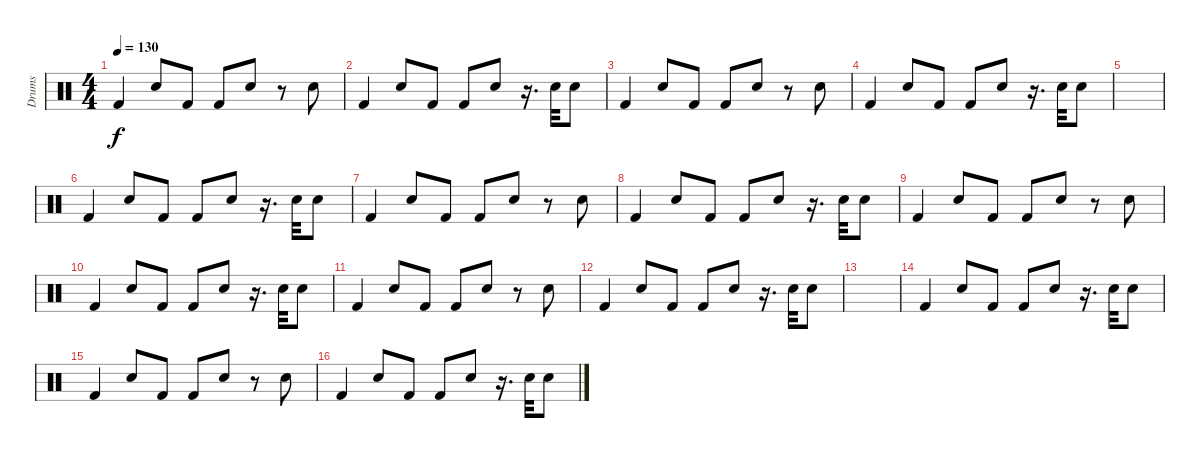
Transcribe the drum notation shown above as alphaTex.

\track ("Drums" "Drums") {instrument percussion}
\staff {score}
\articulation defaults
\ts (4 4)
\tempo 130
\clef neutral
\ks c "Kick (hit) 2".4{dy f} "Snare (hit) 2".8 "Kick (hit) 2".8 "Kick (hit) 2".8 "Snare (hit) 2".8
r.8 "Snare (hit) 2".8 |
"Kick (hit) 2".4 "Snare (hit) 2".8 "Kick (hit) 2".8 "Kick (hit) 2".8 "Snare (hit) 2".8 r.16{d} "Snare (hit) 2".32 "Snare (hit) 2".8 |
"Kick (hit) 2".4 "Snare (hit) 2".8 "Kick (hit) 2".8 "Kick (hit) 2".8 "Snare (hit) 2".8 r.8 "Snare (hit) 2".8 |
"Kick (hit) 2".4 "Snare (hit) 2".8 "Kick (hit) 2".8 "Kick (hit) 2".8 "Snare (hit) 2".8 r.16{d} "Snare (hit) 2".32 "Snare (hit) 2".8 |
|
"Kick (hit) 2".4 "Snare (hit) 2".8 "Kick (hit) 2".8 "Kick (hit) 2".8 "Snare (hit) 2".8 r.16{d} "Snare (hit) 2".32 "Snare (hit) 2".8 |
"Kick (hit) 2".4 "Snare (hit) 2".8 "Kick (hit) 2".8 "Kick (hit) 2".8 "Snare (hit) 2".8 r.8 "Snare (hit) 2".8 |
"Kick (hit) 2".4 "Snare (hit) 2".8 "Kick (hit) 2".8 "Kick (hit) 2".8 "Snare (hit) 2".8 r.16{d} "Snare (hit) 2".32 "Snare (hit) 2".8 |
"Kick (hit) 2".4 "Snare (hit) 2".8 "Kick (hit) 2".8 "Kick (hit) 2".8 "Snare (hit) 2".8 r.8 "Snare (hit) 2".8 |
"Kick (hit) 2".4 "Snare (hit) 2".8 "Kick (hit) 2".8 "Kick (hit) 2".8 "Snare (hit) 2".8 r.16{d} "Snare (hit) 2".32 "Snare (hit) 2".8 |
"Kick (hit) 2".4 "Snare (hit) 2".8 "Kick (hit) 2".8 "Kick (hit) 2".8 "Snare (hit) 2".8 r.8 "Snare (hit) 2".8 |
"Kick (hit) 2".4 "Snare (hit) 2".8 "Kick (hit) 2".8 "Kick (hit) 2".8 "Snare (hit) 2".8 r.16{d} "Snare (hit) 2".32 "Snare (hit) 2".8 |
|
"Kick (hit) 2".4 "Snare (hit) 2".8 "Kick (hit) 2".8 "Kick (hit) 2".8 "Snare (hit) 2".8 r.16{d} "Snare (hit) 2".32 "Snare (hit) 2".8 |
"Kick (hit) 2".4 "Snare (hit) 2".8 "Kick (hit) 2".8 "Kick (hit) 2".8 "Snare (hit) 2".8 r.8 "Snare (hit) 2".8 |
"Kick (hit) 2".4 "Snare (hit) 2".8 "Kick (hit) 2".8 "Kick (hit) 2".8 "Snare (hit) 2".8 r.16{d} "Snare (hit) 2".32 "Snare (hit) 2".8
